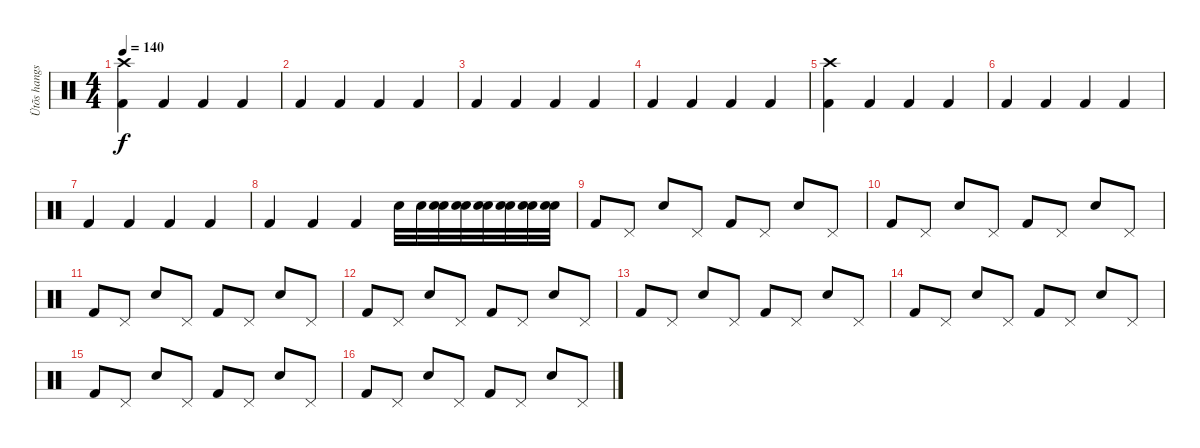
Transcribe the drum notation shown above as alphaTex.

\track ("Ütõs hangszer" "Ütõs hangs") {instrument percussion}
\staff {score}
\articulation defaults
\ts (4 4)
\tempo 140
\clef neutral
\ks c
("Kick (hit) 2" "Crash high (hit)").4{dy f} "Kick (hit) 2".4 "Kick (hit) 2".4 "Kick (hit) 2".4 |
"Kick (hit) 2".4 "Kick (hit) 2".4 "Kick (hit) 2".4 "Kick (hit) 2".4 |
"Kick (hit) 2".4 "Kick (hit) 2".4 "Kick (hit) 2".4 "Kick (hit) 2".4 |
"Kick (hit) 2".4 "Kick (hit) 2".4 "Kick (hit) 2".4 "Kick (hit) 2".4 |
("Kick (hit) 2" "Crash high (hit)").4 "Kick (hit) 2".4 "Kick (hit) 2".4 "Kick (hit) 2".4 |
"Kick (hit) 2".4 "Kick (hit) 2".4 "Kick (hit) 2".4 "Kick (hit) 2".4 |
"Kick (hit) 2".4 "Kick (hit) 2".4 "Kick (hit) 2".4 "Kick (hit) 2".4 |
"Kick (hit) 2".4 "Kick (hit) 2".4 "Kick (hit) 2".4 "Hand Clap (hit)".32 "Hand Clap (hit)".32 ("Hand Clap (hit)" "Snare (hit) 2").32 ("Hand Clap (hit)" "Snare (hit) 2").32 ("Hand Clap (hit)" "Snare (hit) 2").32 ("Hand Clap (hit)" "Snare (hit) 2").32 ("Hand Clap (hit)" "Snare (hit) 2").32 ("Hand Clap (hit)" "Snare (hit) 2").32 |
"Kick (hit) 2".8 "Pedal Hi-Hat (hit)".8 "Snare (hit) 2".8 "Pedal Hi-Hat (hit)".8 "Kick (hit) 2".8 "Pedal Hi-Hat (hit)".8 "Snare (hit) 2".8 "Pedal Hi-Hat (hit)".8 |
"Kick (hit) 2".8 "Pedal Hi-Hat (hit)".8 "Snare (hit) 2".8 "Pedal Hi-Hat (hit)".8 "Kick (hit) 2".8 "Pedal Hi-Hat (hit)".8 "Snare (hit) 2".8 "Pedal Hi-Hat (hit)".8 |
"Kick (hit) 2".8 "Pedal Hi-Hat (hit)".8 "Snare (hit) 2".8 "Pedal Hi-Hat (hit)".8 "Kick (hit) 2".8 "Pedal Hi-Hat (hit)".8 "Snare (hit) 2".8 "Pedal Hi-Hat (hit)".8 |
"Kick (hit) 2".8 "Pedal Hi-Hat (hit)".8 "Snare (hit) 2".8 "Pedal Hi-Hat (hit)".8 "Kick (hit) 2".8 "Pedal Hi-Hat (hit)".8 "Snare (hit) 2".8 "Pedal Hi-Hat (hit)".8 |
"Kick (hit) 2".8 "Pedal Hi-Hat (hit)".8 "Snare (hit) 2".8 "Pedal Hi-Hat (hit)".8 "Kick (hit) 2".8 "Pedal Hi-Hat (hit)".8 "Snare (hit) 2".8 "Pedal Hi-Hat (hit)".8 |
"Kick (hit) 2".8 "Pedal Hi-Hat (hit)".8 "Snare (hit) 2".8 "Pedal Hi-Hat (hit)".8 "Kick (hit) 2".8 "Pedal Hi-Hat (hit)".8 "Snare (hit) 2".8 "Pedal Hi-Hat (hit)".8 |
"Kick (hit) 2".8 "Pedal Hi-Hat (hit)".8 "Snare (hit) 2".8 "Pedal Hi-Hat (hit)".8 "Kick (hit) 2".8 "Pedal Hi-Hat (hit)".8 "Snare (hit) 2".8 "Pedal Hi-Hat (hit)".8 |
"Kick (hit) 2".8 "Pedal Hi-Hat (hit)".8 "Snare (hit) 2".8 "Pedal Hi-Hat (hit)".8 "Kick (hit) 2".8 "Pedal Hi-Hat (hit)".8 "Snare (hit) 2".8 "Pedal Hi-Hat (hit)".8
